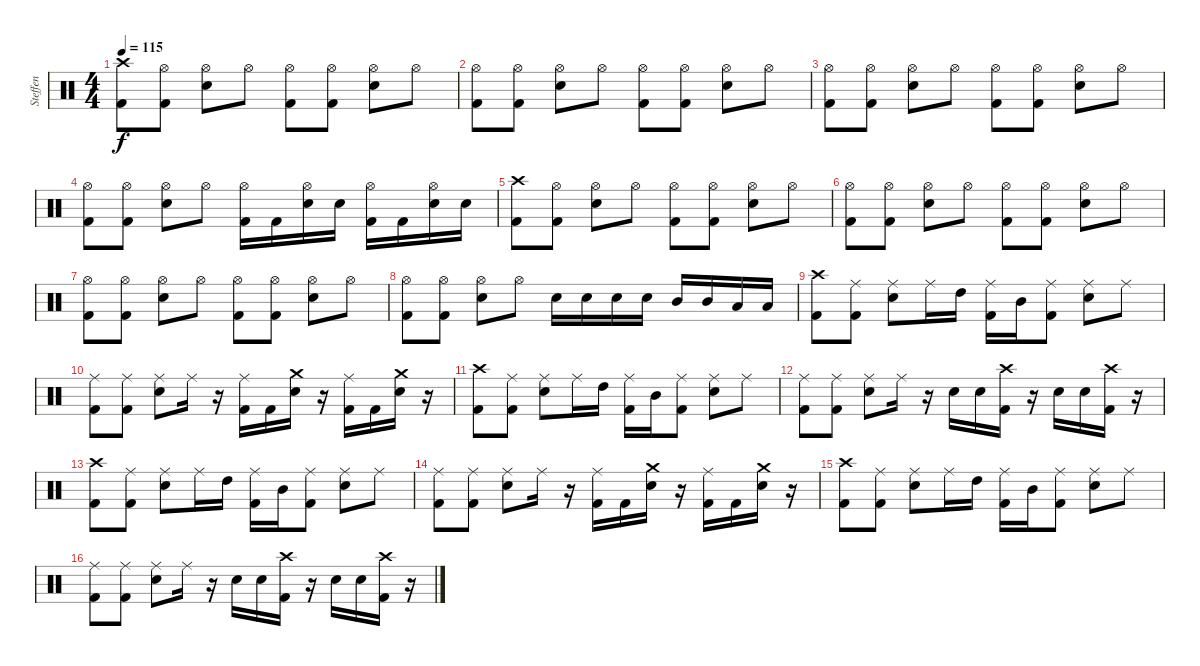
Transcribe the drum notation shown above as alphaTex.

\track ("Steffen" "Steffen") {instrument percussion}
\staff {score}
\articulation defaults
\ts (4 4)
\tempo 115
\clef neutral
\ks c
("Crash high (hit)" "Kick (hit) 2").8{dy f} ("Hi-Hat (open)" "Kick (hit) 2").8 ("Hi-Hat (open)" "Snare (hit) 2").8 "Hi-Hat (open)".8 ("Hi-Hat (open)" "Kick (hit) 2").8 ("Hi-Hat (open)" "Kick (hit) 2").8 ("Hi-Hat (open)" "Snare (hit) 2").8 "Hi-Hat (open)".8 |
("Hi-Hat (open)" "Kick (hit) 2").8 ("Hi-Hat (open)" "Kick (hit) 2").8 ("Hi-Hat (open)" "Snare (hit) 2").8 "Hi-Hat (open)".8 ("Hi-Hat (open)" "Kick (hit) 2").8 ("Hi-Hat (open)" "Kick (hit) 2").8 ("Hi-Hat (open)" "Snare (hit) 2").8 "Hi-Hat (open)".8 |
("Hi-Hat (open)" "Kick (hit) 2").8 ("Hi-Hat (open)" "Kick (hit) 2").8 ("Hi-Hat (open)" "Snare (hit) 2").8 "Hi-Hat (open)".8 ("Hi-Hat (open)" "Kick (hit) 2").8 ("Hi-Hat (open)" "Kick (hit) 2").8 ("Hi-Hat (open)" "Snare (hit) 2").8 "Hi-Hat (open)".8 |
("Hi-Hat (open)" "Kick (hit) 2").8 ("Hi-Hat (open)" "Kick (hit) 2").8 ("Hi-Hat (open)" "Snare (hit) 2").8 "Hi-Hat (open)".8 ("Hi-Hat (open)" "Kick (hit) 2").16 "Kick (hit) 2".16 ("Hi-Hat (open)" "Snare (hit) 2").16 "Snare (hit) 2".16 ("Hi-Hat (open)" "Kick (hit) 2").16 "Kick (hit) 2".16 ("Hi-Hat (open)" "Snare (hit) 2").16 "Snare (hit) 2".16 |
("Crash high (hit)" "Kick (hit) 2").8 ("Hi-Hat (open)" "Kick (hit) 2").8 ("Hi-Hat (open)" "Snare (hit) 2").8 "Hi-Hat (open)".8 ("Hi-Hat (open)" "Kick (hit) 2").8 ("Hi-Hat (open)" "Kick (hit) 2").8 ("Hi-Hat (open)" "Snare (hit) 2").8 "Hi-Hat (open)".8 |
("Hi-Hat (open)" "Kick (hit) 2").8 ("Hi-Hat (open)" "Kick (hit) 2").8 ("Hi-Hat (open)" "Snare (hit) 2").8 "Hi-Hat (open)".8 ("Hi-Hat (open)" "Kick (hit) 2").8 ("Hi-Hat (open)" "Kick (hit) 2").8 ("Hi-Hat (open)" "Snare (hit) 2").8 "Hi-Hat (open)".8 |
("Hi-Hat (open)" "Kick (hit) 2").8 ("Hi-Hat (open)" "Kick (hit) 2").8 ("Hi-Hat (open)" "Snare (hit) 2").8 "Hi-Hat (open)".8 ("Hi-Hat (open)" "Kick (hit) 2").8 ("Hi-Hat (open)" "Kick (hit) 2").8 ("Hi-Hat (open)" "Snare (hit) 2").8 "Hi-Hat (open)".8 |
("Hi-Hat (open)" "Kick (hit) 2").8 ("Hi-Hat (open)" "Kick (hit) 2").8 ("Hi-Hat (open)" "Snare (hit) 2").8 "Hi-Hat (open)".8 "Snare (hit) 2".16 "Snare (hit) 2".16 "Snare (hit) 2".16 "Snare (hit) 2".16 "Mid Tom (hit)".16 "Mid Tom (hit)".16 "Low Tom (hit)".16 "Low Tom (hit)".16 |
("Crash high (hit)" "Kick (hit) 2").8 ("Ride (middle)" "Kick (hit) 2").8 ("Ride (middle)" "Snare (hit) 2").8 "Ride (middle)".16 "High Tom (hit)".16 ("Ride (middle)" "Kick (hit) 2").16 "Mid Tom (hit)".16 ("Ride (middle)" "Kick (hit) 2").8 ("Ride (middle)" "Snare (hit) 2").8 "Ride (middle)".8 |
("Ride (middle)" "Kick (hit) 2").8 ("Ride (middle)" "Kick (hit) 2").8 ("Ride (middle)" "Snare (hit) 2").8 "Ride (middle)".16 r.16 ("Ride (middle)" "Kick (hit) 2").16 "Kick (hit) 2".16 ("Crash medium (hit)" "Snare (hit) 2").16 r.16 ("Ride (middle)" "Kick (hit) 2").16 "Kick (hit) 2".16 ("Crash medium (hit)" "Snare (hit) 2").16 r.16 |
("Crash high (hit)" "Kick (hit) 2").8 ("Ride (middle)" "Kick (hit) 2").8 ("Ride (middle)" "Snare (hit) 2").8 "Ride (middle)".16 "High Tom (hit)".16 ("Ride (middle)" "Kick (hit) 2").16 "Mid Tom (hit)".16 ("Ride (middle)" "Kick (hit) 2").8 ("Ride (middle)" "Snare (hit) 2").8 "Ride (middle)".8 |
("Ride (middle)" "Kick (hit) 2").8 ("Ride (middle)" "Kick (hit) 2").8 ("Ride (middle)" "Snare (hit) 2").8 "Ride (middle)".16 r.16 "Snare (hit) 2".16 "Snare (hit) 2".16 ("Crash high (hit)" "Kick (hit) 2").16 r.16 "Snare (hit) 2".16 "Snare (hit) 2".16 ("Crash high (hit)" "Kick (hit) 2").16 r.16 |
("Crash high (hit)" "Kick (hit) 2").8 ("Ride (middle)" "Kick (hit) 2").8 ("Ride (middle)" "Snare (hit) 2").8 "Ride (middle)".16 "High Tom (hit)".16 ("Ride (middle)" "Kick (hit) 2").16 "Mid Tom (hit)".16 ("Ride (middle)" "Kick (hit) 2").8 ("Ride (middle)" "Snare (hit) 2").8 "Ride (middle)".8 |
("Ride (middle)" "Kick (hit) 2").8 ("Ride (middle)" "Kick (hit) 2").8 ("Ride (middle)" "Snare (hit) 2").8 "Ride (middle)".16 r.16 ("Ride (middle)" "Kick (hit) 2").16 "Kick (hit) 2".16 ("Crash medium (hit)" "Snare (hit) 2").16 r.16 ("Ride (middle)" "Kick (hit) 2").16 "Kick (hit) 2".16 ("Crash medium (hit)" "Snare (hit) 2").16 r.16 |
("Crash high (hit)" "Kick (hit) 2").8 ("Ride (middle)" "Kick (hit) 2").8 ("Ride (middle)" "Snare (hit) 2").8 "Ride (middle)".16 "High Tom (hit)".16 ("Ride (middle)" "Kick (hit) 2").16 "Mid Tom (hit)".16 ("Ride (middle)" "Kick (hit) 2").8 ("Ride (middle)" "Snare (hit) 2").8 "Ride (middle)".8 |
("Ride (middle)" "Kick (hit) 2").8 ("Ride (middle)" "Kick (hit) 2").8 ("Ride (middle)" "Snare (hit) 2").8 "Ride (middle)".16 r.16 "Snare (hit) 2".16 "Snare (hit) 2".16 ("Crash high (hit)" "Kick (hit) 2").16 r.16 "Snare (hit) 2".16 "Snare (hit) 2".16 ("Crash high (hit)" "Kick (hit) 2").16 r.16
